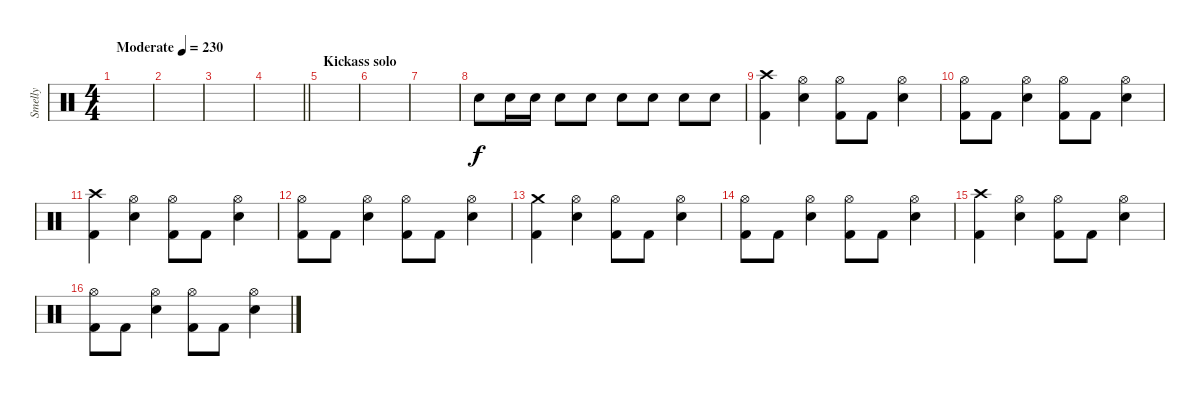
\track ("Smelly" "Smelly") {instrument percussion}
\staff {score}
\articulation defaults
\ts (4 4)
\tempo (230 "Moderate")
\clef neutral
\ks c
|
|
|
\barLineRight lightlight
|
\section ("" "Kickass solo")
|
|
|
"Snare (hit) 2".8 "Snare (hit) 2".16 "Snare (hit) 2".16 "Snare (hit) 2".8 "Snare (hit) 2".8 "Snare (hit) 2".8 "Snare (hit) 2".8 "Snare (hit) 2".8 "Snare (hit) 2".8 |
("Crash high (hit)" "Kick (hit) 2").4 ("Hi-Hat (open)" "Snare (hit) 2").4 ("Hi-Hat (open)" "Kick (hit) 2").8 "Kick (hit) 2".8 ("Hi-Hat (open)" "Snare (hit) 2").4 |
("Hi-Hat (open)" "Kick (hit) 2").8 "Kick (hit) 2".8 ("Hi-Hat (open)" "Snare (hit) 2").4 ("Hi-Hat (open)" "Kick (hit) 2").8 "Kick (hit) 2".8 ("Hi-Hat (open)" "Snare (hit) 2").4 |
("Crash high (hit)" "Kick (hit) 2").4 ("Hi-Hat (open)" "Snare (hit) 2").4 ("Hi-Hat (open)" "Kick (hit) 2").8 "Kick (hit) 2".8 ("Hi-Hat (open)" "Snare (hit) 2").4 |
("Hi-Hat (open)" "Kick (hit) 2").8 "Kick (hit) 2".8 ("Hi-Hat (open)" "Snare (hit) 2").4 ("Hi-Hat (open)" "Kick (hit) 2").8 "Kick (hit) 2".8 ("Hi-Hat (open)" "Snare (hit) 2").4 |
("Crash medium (hit)" "Kick (hit) 2").4 ("Hi-Hat (open)" "Snare (hit) 2").4 ("Hi-Hat (open)" "Kick (hit) 2").8 "Kick (hit) 2".8 ("Hi-Hat (open)" "Snare (hit) 2").4 |
("Hi-Hat (open)" "Kick (hit) 2").8 "Kick (hit) 2".8 ("Hi-Hat (open)" "Snare (hit) 2").4 ("Hi-Hat (open)" "Kick (hit) 2").8 "Kick (hit) 2".8 ("Hi-Hat (open)" "Snare (hit) 2").4 |
("Crash high (hit)" "Kick (hit) 2").4 ("Hi-Hat (open)" "Snare (hit) 2").4 ("Hi-Hat (open)" "Kick (hit) 2").8 "Kick (hit) 2".8 ("Hi-Hat (open)" "Snare (hit) 2").4 |
("Hi-Hat (open)" "Kick (hit) 2").8 "Kick (hit) 2".8 ("Hi-Hat (open)" "Snare (hit) 2").4 ("Hi-Hat (open)" "Kick (hit) 2").8 "Kick (hit) 2".8 ("Hi-Hat (open)" "Snare (hit) 2").4
